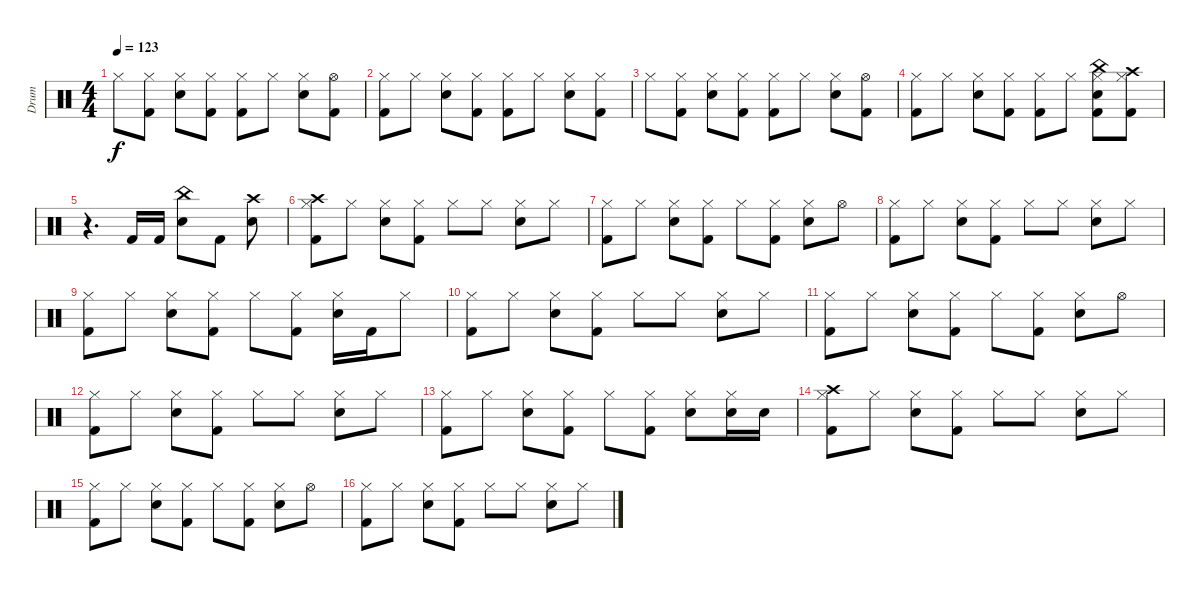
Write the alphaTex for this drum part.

\track ("Drum" "Drum") {instrument percussion}
\staff {score}
\articulation defaults
\ts (4 4)
\tempo 123
\clef neutral
\ks c "Hi-Hat (closed)".8{dy f}
("Hi-Hat (closed)" "Kick (hit) 2").8 ("Hi-Hat (closed)" "Electric Snare (hit)").8 ("Hi-Hat (closed)" "Kick (hit) 2").8 ("Hi-Hat (closed)" "Kick (hit) 2").8 "Hi-Hat (closed)".8 ("Hi-Hat (closed)" "Electric Snare (hit)").8 ("Hi-Hat (open)" "Kick (hit) 2").8 |
("Hi-Hat (closed)" "Kick (hit) 2").8 "Hi-Hat (closed)".8 ("Hi-Hat (closed)" "Electric Snare (hit)").8 ("Hi-Hat (closed)" "Kick (hit) 2").8 ("Hi-Hat (closed)" "Kick (hit) 2").8 "Hi-Hat (closed)".8 ("Hi-Hat (closed)" "Electric Snare (hit)").8 ("Hi-Hat (closed)" "Kick (hit) 2").8 |
"Hi-Hat (closed)".8 ("Hi-Hat (closed)" "Kick (hit) 2").8 ("Hi-Hat (closed)" "Electric Snare (hit)").8 ("Hi-Hat (closed)" "Kick (hit) 2").8 ("Hi-Hat (closed)" "Kick (hit) 2").8 "Hi-Hat (closed)".8 ("Hi-Hat (closed)" "Electric Snare (hit)").8 ("Hi-Hat (open)" "Kick (hit) 2").8 |
("Hi-Hat (closed)" "Kick (hit) 2").8 "Hi-Hat (closed)".8 ("Hi-Hat (closed)" "Electric Snare (hit)").8 ("Hi-Hat (closed)" "Kick (hit) 2").8 ("Hi-Hat (closed)" "Kick (hit) 2").8 "Hi-Hat (closed)".8 ("China (hit)" "Hi-Hat (closed)" "Electric Snare (hit)" "Kick (hit) 2").8 ("Crash high (hit)" "Hi-Hat (closed)" "Kick (hit) 2").8 |
r.4{d} "Kick (hit) 2".16 "Kick (hit) 2".16 ("China (hit)" "Electric Snare (hit)").8 "Kick (hit) 2".8 ("Crash high (hit)" "Electric Snare (hit)").8 |
("Crash high (hit)" "Hi-Hat (closed)" "Kick (hit) 2").8 "Hi-Hat (closed)".8 ("Hi-Hat (closed)" "Electric Snare (hit)").8 ("Hi-Hat (closed)" "Kick (hit) 2").8 "Hi-Hat (closed)".8 "Hi-Hat (closed)".8 ("Hi-Hat (closed)" "Electric Snare (hit)").8 "Hi-Hat (closed)".8 |
("Hi-Hat (closed)" "Kick (hit) 2").8 "Hi-Hat (closed)".8 ("Hi-Hat (closed)" "Electric Snare (hit)").8 ("Hi-Hat (closed)" "Kick (hit) 2").8 "Hi-Hat (closed)".8 ("Hi-Hat (closed)" "Kick (hit) 2").8 ("Hi-Hat (closed)" "Electric Snare (hit)").8 "Hi-Hat (open)".8 |
("Hi-Hat (closed)" "Kick (hit) 2").8 "Hi-Hat (closed)".8 ("Hi-Hat (closed)" "Electric Snare (hit)").8 ("Hi-Hat (closed)" "Kick (hit) 2").8 "Hi-Hat (closed)".8 "Hi-Hat (closed)".8 ("Hi-Hat (closed)" "Electric Snare (hit)").8 "Hi-Hat (closed)".8 |
("Hi-Hat (closed)" "Kick (hit) 2").8 "Hi-Hat (closed)".8 ("Hi-Hat (closed)" "Electric Snare (hit)").8 ("Hi-Hat (closed)" "Kick (hit) 2").8 "Hi-Hat (closed)".8 ("Hi-Hat (closed)" "Kick (hit) 2").8 ("Hi-Hat (closed)" "Electric Snare (hit)").16 "Kick (hit) 2".16 "Hi-Hat (closed)".8 |
("Hi-Hat (closed)" "Kick (hit) 2").8 "Hi-Hat (closed)".8 ("Hi-Hat (closed)" "Electric Snare (hit)").8 ("Hi-Hat (closed)" "Kick (hit) 2").8 "Hi-Hat (closed)".8 "Hi-Hat (closed)".8 ("Hi-Hat (closed)" "Electric Snare (hit)").8 "Hi-Hat (closed)".8 |
("Hi-Hat (closed)" "Kick (hit) 2").8 "Hi-Hat (closed)".8 ("Hi-Hat (closed)" "Electric Snare (hit)").8 ("Hi-Hat (closed)" "Kick (hit) 2").8 "Hi-Hat (closed)".8 ("Hi-Hat (closed)" "Kick (hit) 2").8 ("Hi-Hat (closed)" "Electric Snare (hit)").8 "Hi-Hat (open)".8 |
("Hi-Hat (closed)" "Kick (hit) 2").8 "Hi-Hat (closed)".8 ("Hi-Hat (closed)" "Electric Snare (hit)").8 ("Hi-Hat (closed)" "Kick (hit) 2").8 "Hi-Hat (closed)".8 "Hi-Hat (closed)".8 ("Hi-Hat (closed)" "Electric Snare (hit)").8 "Hi-Hat (closed)".8 |
("Hi-Hat (closed)" "Kick (hit) 2").8 "Hi-Hat (closed)".8 ("Hi-Hat (closed)" "Electric Snare (hit)").8 ("Hi-Hat (closed)" "Kick (hit) 2").8 "Hi-Hat (closed)".8 ("Hi-Hat (closed)" "Kick (hit) 2").8 ("Hi-Hat (closed)" "Electric Snare (hit)").8 ("Hi-Hat (closed)" "Electric Snare (hit)").16 "Electric Snare (hit)".16 |
("Crash high (hit)" "Hi-Hat (closed)" "Kick (hit) 2").8 "Hi-Hat (closed)".8 ("Hi-Hat (closed)" "Electric Snare (hit)").8 ("Hi-Hat (closed)" "Kick (hit) 2").8 "Hi-Hat (closed)".8 "Hi-Hat (closed)".8 ("Hi-Hat (closed)" "Electric Snare (hit)").8 "Hi-Hat (closed)".8 |
("Hi-Hat (closed)" "Kick (hit) 2").8 "Hi-Hat (closed)".8 ("Hi-Hat (closed)" "Electric Snare (hit)").8 ("Hi-Hat (closed)" "Kick (hit) 2").8 "Hi-Hat (closed)".8 ("Hi-Hat (closed)" "Kick (hit) 2").8 ("Hi-Hat (closed)" "Electric Snare (hit)").8 "Hi-Hat (open)".8 |
("Hi-Hat (closed)" "Kick (hit) 2").8 "Hi-Hat (closed)".8 ("Hi-Hat (closed)" "Electric Snare (hit)").8 ("Hi-Hat (closed)" "Kick (hit) 2").8 "Hi-Hat (closed)".8 "Hi-Hat (closed)".8 ("Hi-Hat (closed)" "Electric Snare (hit)").8 "Hi-Hat (closed)".8
